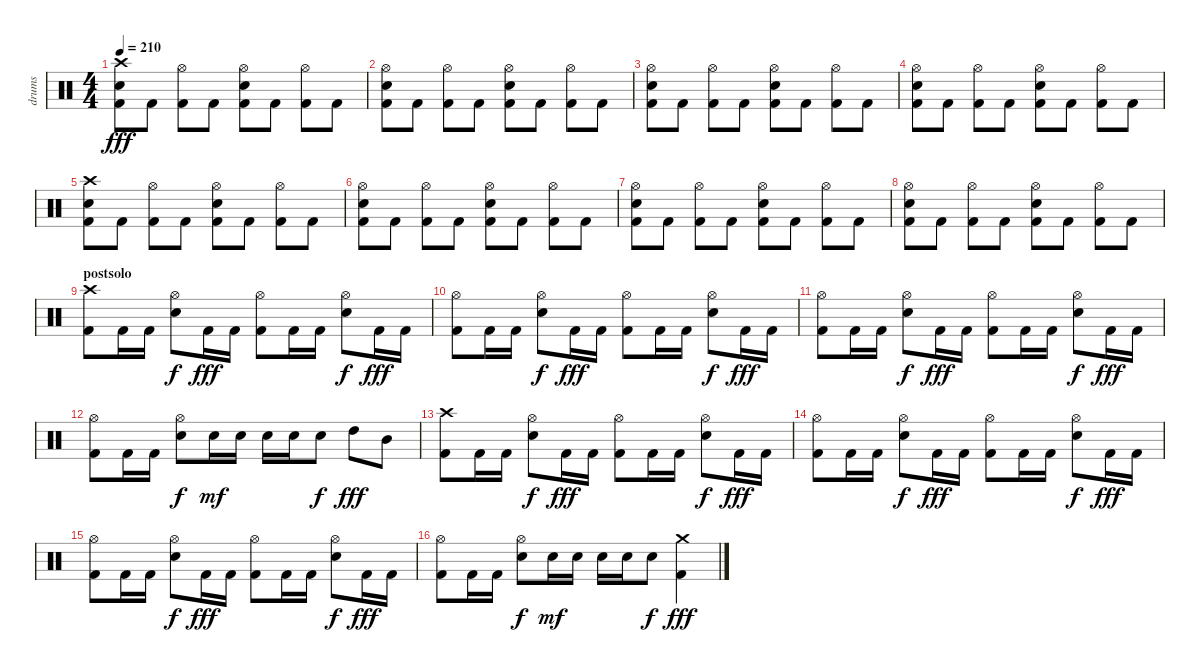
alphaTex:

\track ("drums" "drums") {instrument percussion}
\staff {score}
\articulation defaults
\ts (4 4)
\tempo 210
\clef neutral
\ks c
("Crash high (hit)" "Snare (hit) 2" "Kick (hit) 2").8{dy fff} "Kick (hit) 2".8 ("Hi-Hat (open)" "Kick (hit) 2").8 "Kick (hit) 2".8 ("Hi-Hat (open)" "Snare (hit) 2" "Kick (hit) 2").8 "Kick (hit) 2".8 ("Hi-Hat (open)" "Kick (hit) 2").8 "Kick (hit) 2".8 |
("Hi-Hat (open)" "Snare (hit) 2" "Kick (hit) 2").8 "Kick (hit) 2".8 ("Hi-Hat (open)" "Kick (hit) 2").8 "Kick (hit) 2".8 ("Hi-Hat (open)" "Snare (hit) 2" "Kick (hit) 2").8 "Kick (hit) 2".8 ("Hi-Hat (open)" "Kick (hit) 2").8 "Kick (hit) 2".8 |
("Hi-Hat (open)" "Snare (hit) 2" "Kick (hit) 2").8 "Kick (hit) 2".8 ("Hi-Hat (open)" "Kick (hit) 2").8 "Kick (hit) 2".8 ("Hi-Hat (open)" "Snare (hit) 2" "Kick (hit) 2").8 "Kick (hit) 2".8 ("Hi-Hat (open)" "Kick (hit) 2").8 "Kick (hit) 2".8 |
("Hi-Hat (open)" "Snare (hit) 2" "Kick (hit) 2").8 "Kick (hit) 2".8 ("Hi-Hat (open)" "Kick (hit) 2").8 "Kick (hit) 2".8 ("Hi-Hat (open)" "Snare (hit) 2" "Kick (hit) 2").8 "Kick (hit) 2".8 ("Hi-Hat (open)" "Kick (hit) 2").8 "Kick (hit) 2".8 |
("Crash high (hit)" "Snare (hit) 2" "Kick (hit) 2").8 "Kick (hit) 2".8 ("Hi-Hat (open)" "Kick (hit) 2").8 "Kick (hit) 2".8 ("Hi-Hat (open)" "Snare (hit) 2" "Kick (hit) 2").8 "Kick (hit) 2".8 ("Hi-Hat (open)" "Kick (hit) 2").8 "Kick (hit) 2".8 |
("Hi-Hat (open)" "Snare (hit) 2" "Kick (hit) 2").8 "Kick (hit) 2".8 ("Hi-Hat (open)" "Kick (hit) 2").8 "Kick (hit) 2".8 ("Hi-Hat (open)" "Snare (hit) 2" "Kick (hit) 2").8 "Kick (hit) 2".8 ("Hi-Hat (open)" "Kick (hit) 2").8 "Kick (hit) 2".8 |
("Hi-Hat (open)" "Snare (hit) 2" "Kick (hit) 2").8 "Kick (hit) 2".8 ("Hi-Hat (open)" "Kick (hit) 2").8 "Kick (hit) 2".8 ("Hi-Hat (open)" "Snare (hit) 2" "Kick (hit) 2").8 "Kick (hit) 2".8 ("Hi-Hat (open)" "Kick (hit) 2").8 "Kick (hit) 2".8 |
("Hi-Hat (open)" "Snare (hit) 2" "Kick (hit) 2").8 "Kick (hit) 2".8 ("Hi-Hat (open)" "Kick (hit) 2").8 "Kick (hit) 2".8 ("Hi-Hat (open)" "Snare (hit) 2" "Kick (hit) 2").8 "Kick (hit) 2".8 ("Hi-Hat (open)" "Kick (hit) 2").8 "Kick (hit) 2".8 |
\section ("" "postsolo")
("Crash high (hit)" "Kick (hit) 2").8 "Kick (hit) 2".16 "Kick (hit) 2".16 ("Hi-Hat (open)" "Snare (hit) 2").8{dy f} "Kick (hit) 2".16{dy fff} "Kick (hit) 2".16 ("Hi-Hat (open)" "Kick (hit) 2").8 "Kick (hit) 2".16 "Kick (hit) 2".16 ("Hi-Hat (open)" "Snare (hit) 2").8{dy f} "Kick (hit) 2".16{dy fff} "Kick (hit) 2".16 |
("Hi-Hat (open)" "Kick (hit) 2").8 "Kick (hit) 2".16 "Kick (hit) 2".16 ("Hi-Hat (open)" "Snare (hit) 2").8{dy f} "Kick (hit) 2".16{dy fff} "Kick (hit) 2".16 ("Hi-Hat (open)" "Kick (hit) 2").8 "Kick (hit) 2".16 "Kick (hit) 2".16 ("Hi-Hat (open)" "Snare (hit) 2").8{dy f} "Kick (hit) 2".16{dy fff} "Kick (hit) 2".16 |
("Hi-Hat (open)" "Kick (hit) 2").8 "Kick (hit) 2".16 "Kick (hit) 2".16 ("Hi-Hat (open)" "Snare (hit) 2").8{dy f} "Kick (hit) 2".16{dy fff} "Kick (hit) 2".16 ("Hi-Hat (open)" "Kick (hit) 2").8 "Kick (hit) 2".16 "Kick (hit) 2".16 ("Hi-Hat (open)" "Snare (hit) 2").8{dy f} "Kick (hit) 2".16{dy fff} "Kick (hit) 2".16 |
("Hi-Hat (open)" "Kick (hit) 2").8 "Kick (hit) 2".16 "Kick (hit) 2".16 ("Hi-Hat (open)" "Snare (hit) 2").8{dy f} "Snare (hit) 2".16{dy mf} "Snare (hit) 2".16 "Snare (hit) 2".16 "Snare (hit) 2".16 "Snare (hit) 2".8{dy f} "High Tom (hit)".8{dy fff} "Mid Tom (hit)".8 |
("Crash high (hit)" "Kick (hit) 2").8 "Kick (hit) 2".16 "Kick (hit) 2".16 ("Hi-Hat (open)" "Snare (hit) 2").8{dy f} "Kick (hit) 2".16{dy fff} "Kick (hit) 2".16 ("Hi-Hat (open)" "Kick (hit) 2").8 "Kick (hit) 2".16 "Kick (hit) 2".16 ("Hi-Hat (open)" "Snare (hit) 2").8{dy f} "Kick (hit) 2".16{dy fff} "Kick (hit) 2".16 |
("Hi-Hat (open)" "Kick (hit) 2").8 "Kick (hit) 2".16 "Kick (hit) 2".16 ("Hi-Hat (open)" "Snare (hit) 2").8{dy f} "Kick (hit) 2".16{dy fff} "Kick (hit) 2".16 ("Hi-Hat (open)" "Kick (hit) 2").8 "Kick (hit) 2".16 "Kick (hit) 2".16 ("Hi-Hat (open)" "Snare (hit) 2").8{dy f} "Kick (hit) 2".16{dy fff} "Kick (hit) 2".16 |
("Hi-Hat (open)" "Kick (hit) 2").8 "Kick (hit) 2".16 "Kick (hit) 2".16 ("Hi-Hat (open)" "Snare (hit) 2").8{dy f} "Kick (hit) 2".16{dy fff} "Kick (hit) 2".16 ("Hi-Hat (open)" "Kick (hit) 2").8 "Kick (hit) 2".16 "Kick (hit) 2".16 ("Hi-Hat (open)" "Snare (hit) 2").8{dy f} "Kick (hit) 2".16{dy fff} "Kick (hit) 2".16 |
("Hi-Hat (open)" "Kick (hit) 2").8 "Kick (hit) 2".16 "Kick (hit) 2".16 ("Hi-Hat (open)" "Snare (hit) 2").8{dy f} "Snare (hit) 2".16{dy mf} "Snare (hit) 2".16 "Snare (hit) 2".16 "Snare (hit) 2".16 "Snare (hit) 2".8{dy f} ("Crash medium (hit)" "Kick (hit) 2").4{dy fff}
